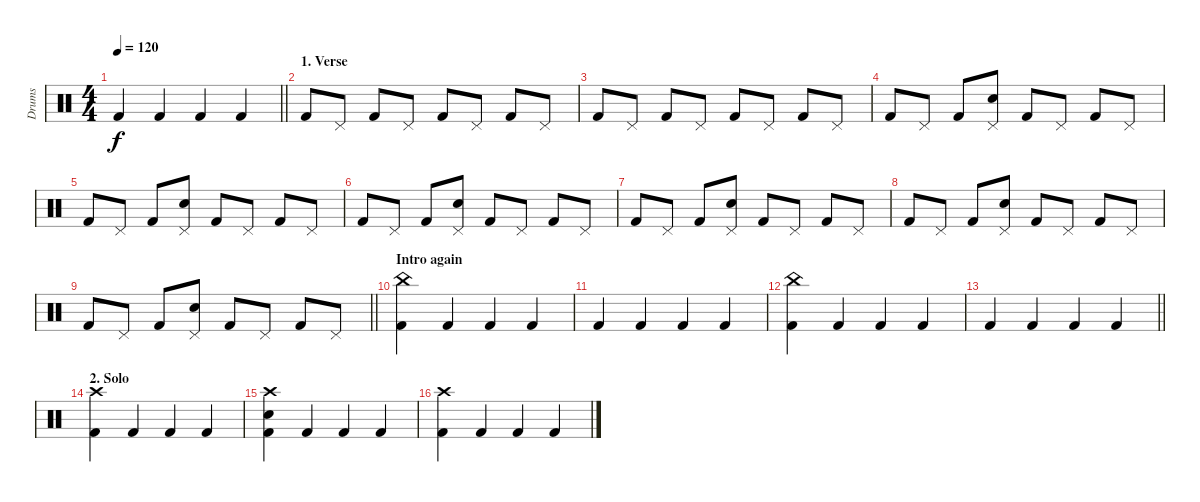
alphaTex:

\track ("Drums" "Drums") {instrument percussion}
\staff {score}
\articulation defaults
\ts (4 4)
\tempo 120
\clef neutral
\barLineRight lightlight
\ks c "Kick (hit) 2".4{dy f} "Kick (hit) 2".4 "Kick (hit) 2".4 "Kick (hit) 2".4
|
\section ("" "1. Verse")
"Kick (hit) 2".8 "Pedal Hi-Hat (hit)".8 "Kick (hit) 2".8 "Pedal Hi-Hat (hit)".8 "Kick (hit) 2".8 "Pedal Hi-Hat (hit)".8 "Kick (hit) 2".8 "Pedal Hi-Hat (hit)".8 |
"Kick (hit) 2".8 "Pedal Hi-Hat (hit)".8 "Kick (hit) 2".8 "Pedal Hi-Hat (hit)".8 "Kick (hit) 2".8 "Pedal Hi-Hat (hit)".8 "Kick (hit) 2".8 "Pedal Hi-Hat (hit)".8 |
"Kick (hit) 2".8 "Pedal Hi-Hat (hit)".8 "Kick (hit) 2".8 ("Pedal Hi-Hat (hit)" "Snare (hit) 2").8 "Kick (hit) 2".8 "Pedal Hi-Hat (hit)".8 "Kick (hit) 2".8 "Pedal Hi-Hat (hit)".8 |
"Kick (hit) 2".8 "Pedal Hi-Hat (hit)".8 "Kick (hit) 2".8 ("Pedal Hi-Hat (hit)" "Snare (hit) 2").8 "Kick (hit) 2".8 "Pedal Hi-Hat (hit)".8 "Kick (hit) 2".8 "Pedal Hi-Hat (hit)".8 |
"Kick (hit) 2".8 "Pedal Hi-Hat (hit)".8 "Kick (hit) 2".8 ("Pedal Hi-Hat (hit)" "Snare (hit) 2").8 "Kick (hit) 2".8 "Pedal Hi-Hat (hit)".8 "Kick (hit) 2".8 "Pedal Hi-Hat (hit)".8 |
"Kick (hit) 2".8 "Pedal Hi-Hat (hit)".8 "Kick (hit) 2".8 ("Pedal Hi-Hat (hit)" "Snare (hit) 2").8 "Kick (hit) 2".8 "Pedal Hi-Hat (hit)".8 "Kick (hit) 2".8 "Pedal Hi-Hat (hit)".8 |
"Kick (hit) 2".8 "Pedal Hi-Hat (hit)".8 "Kick (hit) 2".8 ("Pedal Hi-Hat (hit)" "Snare (hit) 2").8 "Kick (hit) 2".8 "Pedal Hi-Hat (hit)".8 "Kick (hit) 2".8 "Pedal Hi-Hat (hit)".8 |
\barLineRight lightlight "Kick (hit) 2".8 "Pedal Hi-Hat (hit)".8 "Kick (hit) 2".8
("Pedal Hi-Hat (hit)" "Snare (hit) 2").8 "Kick (hit) 2".8 "Pedal Hi-Hat (hit)".8 "Kick (hit) 2".8 "Pedal Hi-Hat (hit)".8 |
\section ("" "Intro again")
("China (hit)" "Kick (hit) 2").4 "Kick (hit) 2".4 "Kick (hit) 2".4 "Kick (hit) 2".4 |
"Kick (hit) 2".4 "Kick (hit) 2".4 "Kick (hit) 2".4 "Kick (hit) 2".4 |
("China (hit)" "Kick (hit) 2").4 "Kick (hit) 2".4 "Kick (hit) 2".4 "Kick (hit) 2".4 |
\barLineRight lightlight "Kick (hit) 2".4 "Kick (hit) 2".4 "Kick (hit) 2".4 "Kick (hit) 2".4
|
\section ("" "2. Solo")
("Crash high (hit)" "Kick (hit) 2").4 "Kick (hit) 2".4 "Kick (hit) 2".4 "Kick (hit) 2".4 |
("Crash high (hit)" "Snare (hit) 2" "Kick (hit) 2").4 "Kick (hit) 2".4 "Kick (hit) 2".4 "Kick (hit) 2".4 |
("Crash high (hit)" "Kick (hit) 2").4 "Kick (hit) 2".4 "Kick (hit) 2".4 "Kick (hit) 2".4
